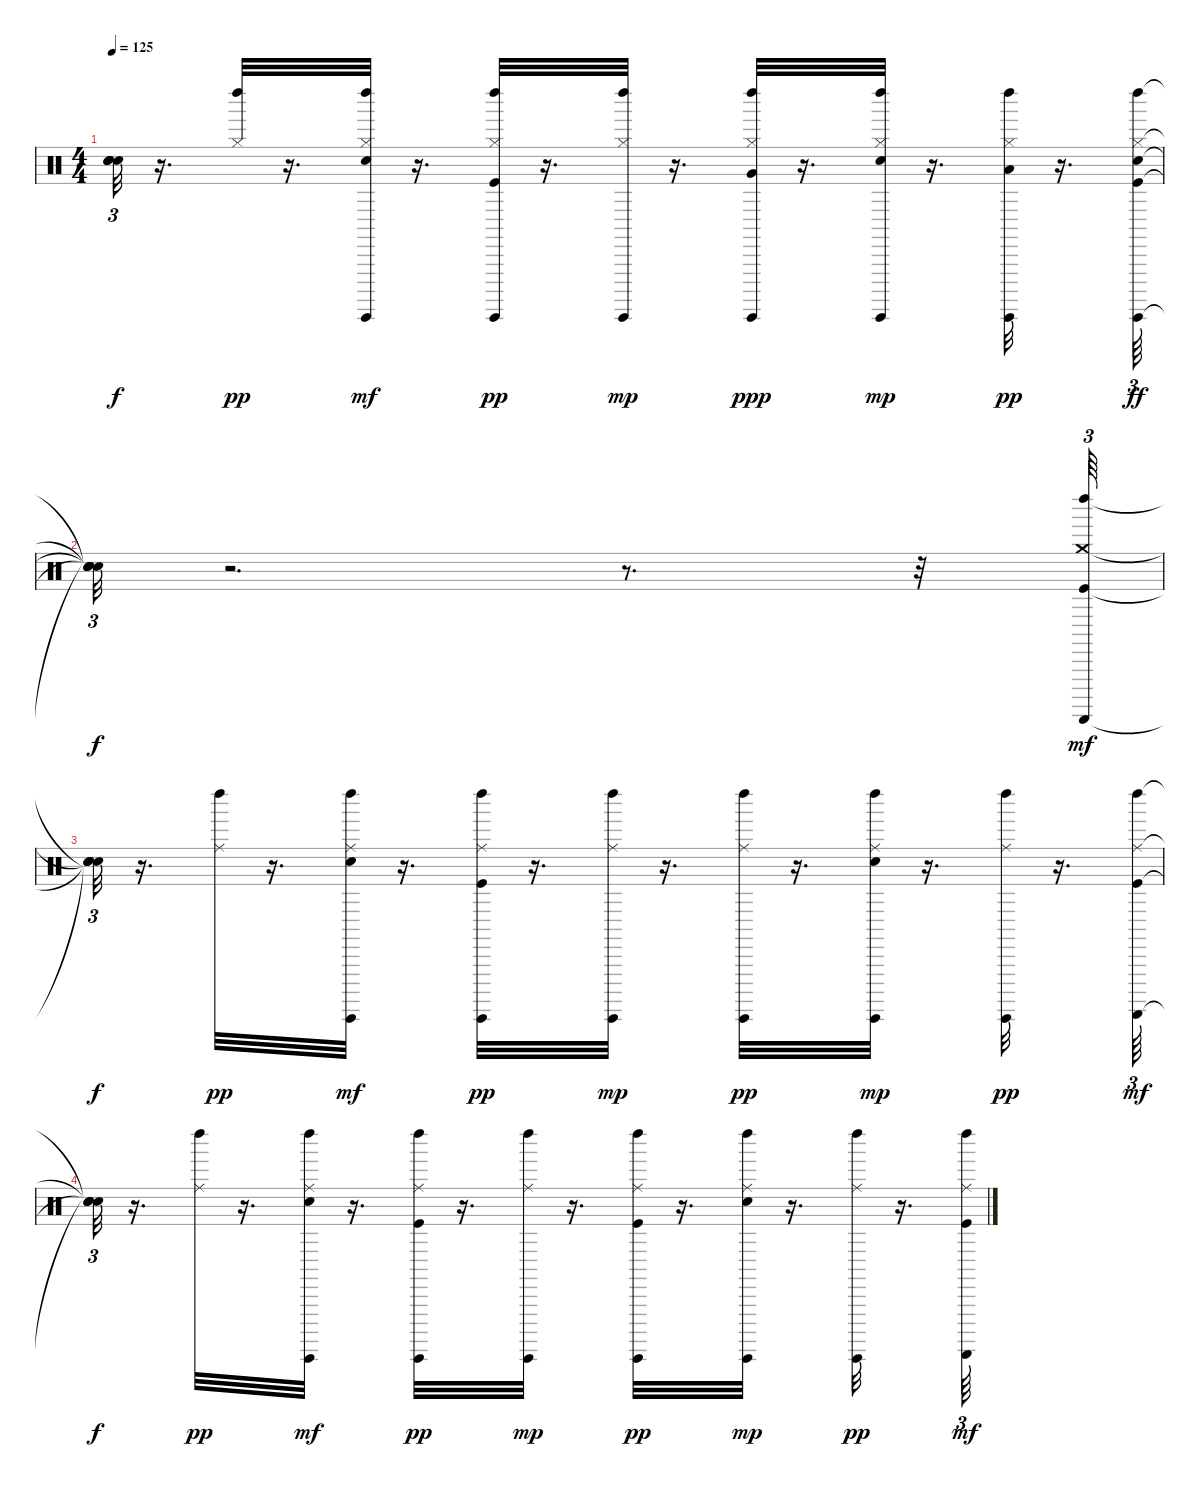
\track "" {instrument percussion}
\staff {score}
\articulation defaults
\ts (4 4)
\tempo 125
\clef neutral
\ks c
("Snare (hit)"{t} "Snare (hit)"{t} "Snare (hit)"{t} "Snare (hit)"{t}).32{tu (3 2) dy f} r.16{d} ("Hi-Hat (closed)" "Left Maraca (hit)").32{dy pp} r.16{d} ("Electric Snare (hit)" "Hi-Hat (closed)" "Left Maraca (hit)" "Guiro (hit)").32{dy mf} r.16{d} ("Left Maraca (hit)" "Hi-Hat (closed)" "Kick (hit)" "Guiro (hit)").32{dy pp} r.16{d} ("Left Maraca (hit)" "Hi-Hat (closed)" "Guiro (hit)").32{dy mp} r.16{d} ("Left Maraca (hit)" "Very Low Tom (hit)" "Hi-Hat (closed)" "Guiro (hit)").32{dy ppp} r.16{d} ("Hi-Hat (closed)" "Electric Snare (hit)" "Left Maraca (hit)" "Guiro (hit)").32{dy mp} r.16{d} ("Low Floor Tom (hit)" "Hi-Hat (closed)" "Left Maraca (hit)" "Guiro (hit)").32{dy pp} r.16{d} ("Hi-Hat (closed)" "Kick (hit)" "Guiro (hit)" "Left Maraca (hit)" "Electric Snare (hit)").64{tu (3 2) dy ff} |
("Snare (hit)"{t} "Snare (hit)"{t} "Snare (hit)"{t} "Snare (hit)"{t} "Snare (hit)"{t}).32{tu (3 2) dy f} r.2{d} r.8{d} r.32 ("Left Maraca (hit)" "Crash medium (hit)" "Kick (hit)" "Guiro (scrap-return)").64{tu (3 2) dy mf} |
("Snare (hit)"{t} "Snare (hit)"{t} "Snare (hit)"{t} "Snare (hit)"{t}).32{tu (3 2) dy f} r.16{d} ("Left Maraca (hit)" "Ride (middle)").32{dy pp} r.16{d} ("Ride (middle)" "Electric Snare (hit)" "Left Maraca (hit)" "Guiro (hit)").32{dy mf} r.16{d} ("Ride (middle)" "Left Maraca (hit)" "Kick (hit)" "Guiro (hit)").32{dy pp} r.16{d} ("Ride (middle)" "Left Maraca (hit)" "Guiro (hit)").32{dy mp} r.16{d} ("Left Maraca (hit)" "Ride (middle)" "Guiro (hit)").32{dy pp} r.16{d} ("Ride (middle)" "Left Maraca (hit)" "Electric Snare (hit)" "Guiro (hit)").32{dy mp} r.16{d} ("Ride (middle)" "Left Maraca (hit)" "Guiro (hit)").32{dy pp} r.16{d} ("Kick (hit)" "Left Maraca (hit)" "Ride (middle)" "Guiro (scrap-return)").64{tu (3 2) dy mf} |
("Snare (hit)"{t} "Snare (hit)"{t} "Snare (hit)"{t} "Snare (hit)"{t}).32{tu (3 2) dy f} r.16{d} ("Left Maraca (hit)" "Ride (middle)").32{dy pp} r.16{d} ("Ride (middle)" "Left Maraca (hit)" "Electric Snare (hit)" "Guiro (hit)").32{dy mf} r.16{d} ("Left Maraca (hit)" "Ride (middle)" "Kick (hit)" "Guiro (hit)").32{dy pp} r.16{d} ("Ride (middle)" "Left Maraca (hit)" "Guiro (hit)").32{dy mp} r.16{d} ("Left Maraca (hit)" "Ride (middle)" "Kick (hit)" "Guiro (hit)").32{dy pp} r.16{d} ("Left Maraca (hit)" "Ride (middle)" "Electric Snare (hit)" "Guiro (hit)").32{dy mp} r.16{d} ("Left Maraca (hit)" "Ride (middle)" "Guiro (hit)").32{dy pp} r.16{d} ("Kick (hit)" "Left Maraca (hit)" "Ride (middle)" "Guiro (scrap-return)").64{tu (3 2) dy mf}
